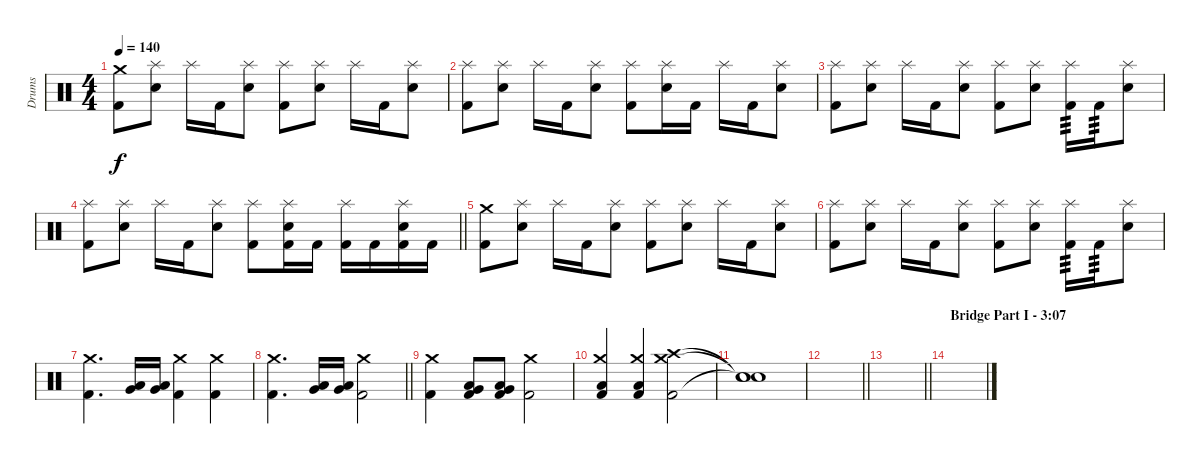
\track ("Drums" "Drums") {instrument percussion}
\staff {score}
\articulation defaults
\ts (4 4)
\section ("" "")
\tempo 140
\clef neutral
\ks c
("Kick (hit) 2" "Crash medium (hit)").8{dy f} ("Snare (hit) 2" "Splash (hit)").8 "Splash (hit)".16 "Kick (hit) 2".16 ("Snare (hit) 2" "Splash (hit)").8 ("Kick (hit) 2" "Splash (hit)").8 ("Snare (hit) 2" "Splash (hit)").8 "Splash (hit)".16 "Kick (hit) 2".16 ("Snare (hit) 2" "Splash (hit)").8 |
("Kick (hit) 2" "Splash (hit)").8 ("Snare (hit) 2" "Splash (hit)").8 "Splash (hit)".16 "Kick (hit) 2".16 ("Snare (hit) 2" "Splash (hit)").8 ("Kick (hit) 2" "Splash (hit)").8 ("Snare (hit) 2" "Splash (hit)").16 "Kick (hit) 2".16 "Splash (hit)".16 "Kick (hit) 2".16 ("Snare (hit) 2" "Splash (hit)").8 |
("Kick (hit) 2" "Splash (hit)").8 ("Snare (hit) 2" "Splash (hit)").8 "Splash (hit)".16 "Kick (hit) 2".16 ("Snare (hit) 2" "Splash (hit)").8 ("Kick (hit) 2" "Splash (hit)").8 ("Snare (hit) 2" "Splash (hit)").8 ("Kick (hit) 2" "Splash (hit)").16{tp 3} "Kick (hit) 2".16{tp 3} ("Snare (hit) 2" "Splash (hit)").8 |
\barLineRight lightlight
("Kick (hit) 2" "Splash (hit)").8 ("Snare (hit) 2" "Splash (hit)").8 "Splash (hit)".16 "Kick (hit) 2".16 ("Snare (hit) 2" "Splash (hit)").8 ("Kick (hit) 2" "Splash (hit)").8 ("Kick (hit) 2" "Snare (hit) 2" "Splash (hit)").16 "Kick (hit) 2".16 ("Kick (hit) 2" "Splash (hit)").16 "Kick (hit) 2".16 ("Kick (hit) 2" "Snare (hit) 2" "Splash (hit)").16 "Kick (hit) 2".16 |
\section ("" "")
("Kick (hit) 2" "Crash medium (hit)").8 ("Snare (hit) 2" "Splash (hit)").8 "Splash (hit)".16 "Kick (hit) 2".16 ("Snare (hit) 2" "Splash (hit)").8 ("Kick (hit) 2" "Splash (hit)").8 ("Snare (hit) 2" "Splash (hit)").8 "Splash (hit)".16 "Kick (hit) 2".16 ("Snare (hit) 2" "Splash (hit)").8 |
("Kick (hit) 2" "Splash (hit)").8 ("Snare (hit) 2" "Splash (hit)").8 "Splash (hit)".16 "Kick (hit) 2".16 ("Snare (hit) 2" "Splash (hit)").8 ("Kick (hit) 2" "Splash (hit)").8 ("Snare (hit) 2" "Splash (hit)").8 ("Kick (hit) 2" "Splash (hit)").16{tp 3} "Kick (hit) 2".16{tp 3} ("Snare (hit) 2" "Splash (hit)").8 |
("Kick (hit) 2" "Crash medium (hit)").4{d} ("Very Low Tom (hit)" "Low Floor Tom (hit)").16 ("Very Low Tom (hit)" "Low Floor Tom (hit)").16 ("Kick (hit) 2" "Crash medium (hit)").4 ("Kick (hit) 2" "Crash medium (hit)").4 |
\barLineRight lightlight
("Kick (hit) 2" "Crash medium (hit)").4{d} ("Very Low Tom (hit)" "Low Floor Tom (hit)").16 ("Very Low Tom (hit)" "Low Floor Tom (hit)").16 ("Kick (hit) 2" "Crash medium (hit)").2 |
\section ("" "")
("Kick (hit) 2" "Crash medium (hit)").4 ("Kick (hit) 2" "Very Low Tom (hit)" "Low Floor Tom (hit)").8 ("Kick (hit) 2" "Very Low Tom (hit)" "Low Floor Tom (hit)").8 ("Kick (hit) 2" "Crash medium (hit)").2 |
("Kick (hit) 2" "Low Floor Tom (hit)" "Crash medium (hit)").4 ("Kick (hit) 2" "Low Floor Tom (hit)" "Crash medium (hit)").4 ("Kick (hit) 2" "Crash medium (hit)" "Crash high (hit)").2 |
("Snare (hit)"{t} "Snare (hit)"{t} "Snare (hit)"{t}).1 |
\barLineRight lightlight
|
\barLineRight lightlight
|
\section ("" "Bridge Part I - 3:07")
